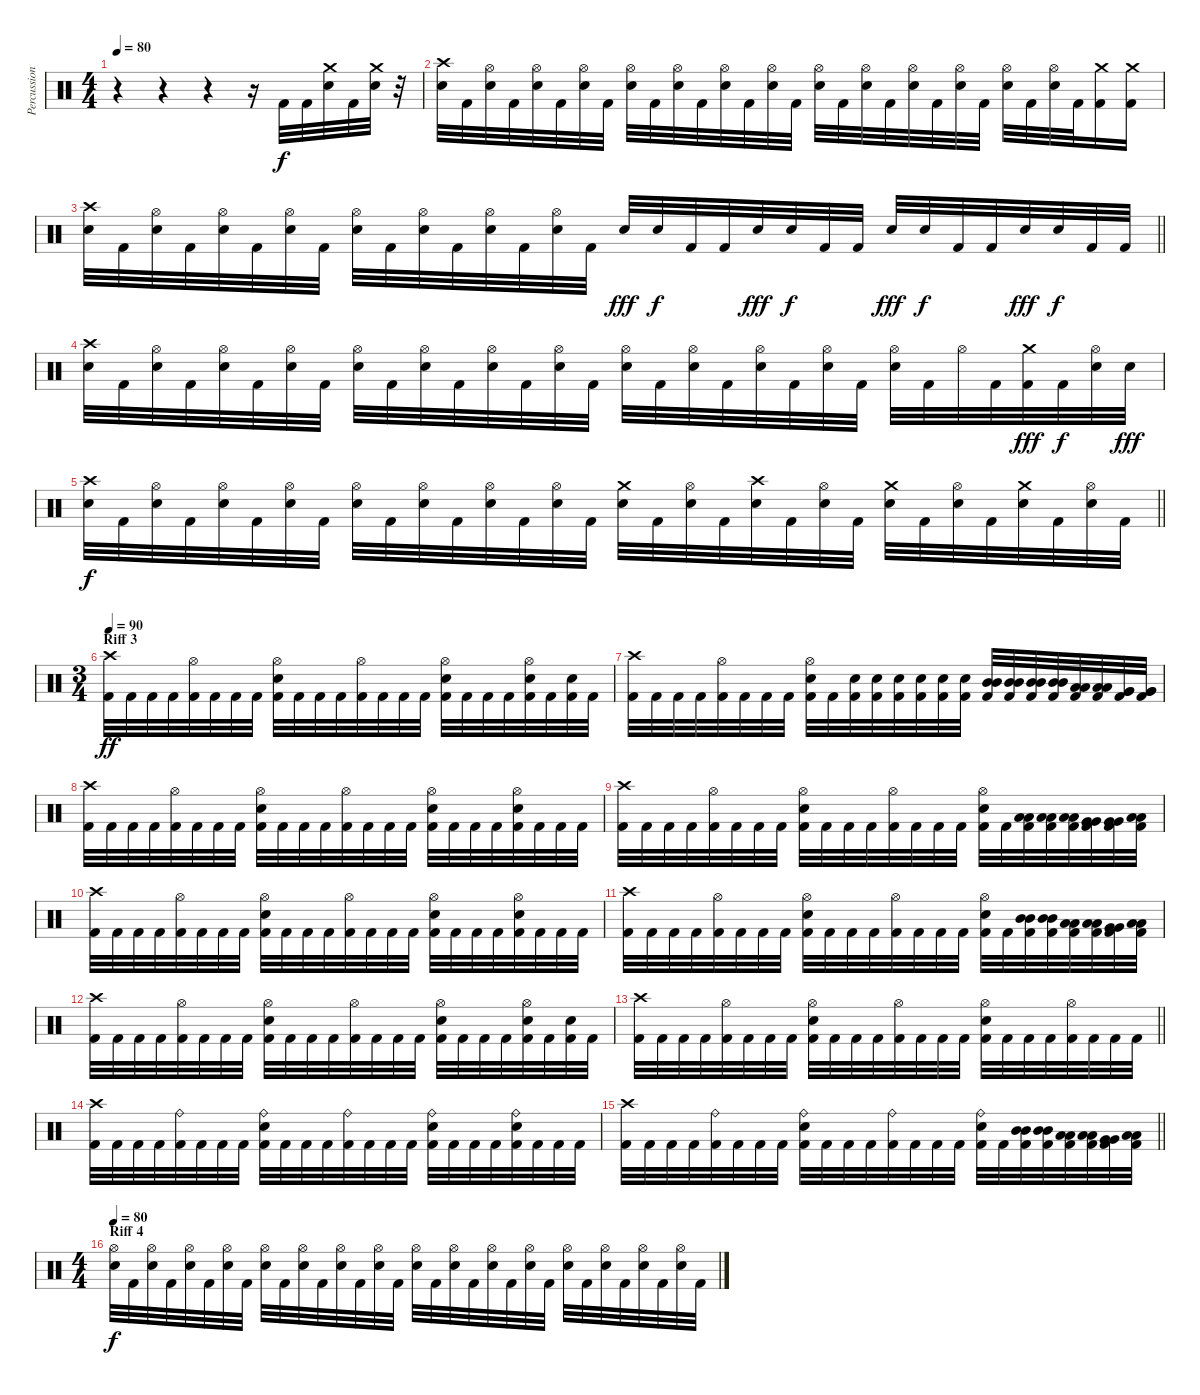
\track ("Percussion" "Percussion") {instrument percussion}
\staff {score}
\articulation defaults
\ts (4 4)
\tempo 80
\clef neutral
\ks c
r.4{dy f} r.4 r.4 r.16 "Kick (hit) 2".32 "Kick (hit) 2".32 ("Crash medium (hit)" "Electric Snare (hit)").32 "Kick (hit) 2".32 ("Crash medium (hit)" "Electric Snare (hit)").32 r.32 |
("Crash high (hit)" "Electric Snare (hit)").32 "Kick (hit) 2".32 ("Hi-Hat (open)" "Electric Snare (hit)").32 "Kick (hit) 2".32 ("Hi-Hat (open)" "Electric Snare (hit)").32 "Kick (hit) 2".32 ("Hi-Hat (open)" "Electric Snare (hit)").32 "Kick (hit) 2".32 ("Hi-Hat (open)" "Electric Snare (hit)").32 "Kick (hit) 2".32 ("Hi-Hat (open)" "Electric Snare (hit)").32 "Kick (hit) 2".32 ("Hi-Hat (open)" "Electric Snare (hit)").32 "Kick (hit) 2".32 ("Hi-Hat (open)" "Electric Snare (hit)").32 "Kick (hit) 2".32 ("Hi-Hat (open)" "Electric Snare (hit)").32 "Kick (hit) 2".32 ("Hi-Hat (open)" "Electric Snare (hit)").32 "Kick (hit) 2".32 ("Hi-Hat (open)" "Electric Snare (hit)").32 "Kick (hit) 2".32 ("Hi-Hat (open)" "Electric Snare (hit)").32 "Kick (hit) 2".32 ("Hi-Hat (open)" "Electric Snare (hit)").32 "Kick (hit) 2".32 ("Hi-Hat (open)" "Electric Snare (hit)").32 "Kick (hit) 2".32 ("Crash medium (hit)" "Kick (hit) 2").16 ("Crash medium (hit)" "Kick (hit) 2").16 |
\barLineRight lightlight
("Crash high (hit)" "Electric Snare (hit)").32 "Kick (hit) 2".32 ("Hi-Hat (open)" "Electric Snare (hit)").32 "Kick (hit) 2".32 ("Hi-Hat (open)" "Electric Snare (hit)").32 "Kick (hit) 2".32 ("Hi-Hat (open)" "Electric Snare (hit)").32 "Kick (hit) 2".32 ("Hi-Hat (open)" "Electric Snare (hit)").32 "Kick (hit) 2".32 ("Hi-Hat (open)" "Electric Snare (hit)").32 "Kick (hit) 2".32 ("Hi-Hat (open)" "Electric Snare (hit)").32 "Kick (hit) 2".32 ("Hi-Hat (open)" "Electric Snare (hit)").32 "Kick (hit) 2".32 "Electric Snare (hit)".32{dy fff} "Electric Snare (hit)".32{dy f} "Kick (hit) 2".32 "Kick (hit) 2".32 "Electric Snare (hit)".32{dy fff} "Electric Snare (hit)".32{dy f} "Kick (hit) 2".32 "Kick (hit) 2".32 "Electric Snare (hit)".32{dy fff} "Electric Snare (hit)".32{dy f} "Kick (hit) 2".32 "Kick (hit) 2".32 "Electric Snare (hit)".32{dy fff} "Electric Snare (hit)".32{dy f} "Kick (hit) 2".32 "Kick (hit) 2".32 |
("Crash high (hit)" "Electric Snare (hit)").32 "Kick (hit) 2".32 ("Hi-Hat (open)" "Electric Snare (hit)").32 "Kick (hit) 2".32 ("Hi-Hat (open)" "Electric Snare (hit)").32 "Kick (hit) 2".32 ("Hi-Hat (open)" "Electric Snare (hit)").32 "Kick (hit) 2".32 ("Hi-Hat (open)" "Electric Snare (hit)").32 "Kick (hit) 2".32 ("Hi-Hat (open)" "Electric Snare (hit)").32 "Kick (hit) 2".32 ("Hi-Hat (open)" "Electric Snare (hit)").32 "Kick (hit) 2".32 ("Hi-Hat (open)" "Electric Snare (hit)").32 "Kick (hit) 2".32 ("Hi-Hat (open)" "Electric Snare (hit)").32 "Kick (hit) 2".32 ("Hi-Hat (open)" "Electric Snare (hit)").32 "Kick (hit) 2".32 ("Hi-Hat (open)" "Electric Snare (hit)").32 "Kick (hit) 2".32 ("Hi-Hat (open)" "Electric Snare (hit)").32 "Kick (hit) 2".32 ("Hi-Hat (open)" "Electric Snare (hit)").32 "Kick (hit) 2".32 "Hi-Hat (open)".32 "Kick (hit) 2".32 ("Crash medium (hit)" "Kick (hit) 2").32{dy fff} "Kick (hit) 2".32{dy f} ("Hi-Hat (open)" "Electric Snare (hit)").32 "Electric Snare (hit)".32{dy fff} |
\barLineRight lightlight
("Crash high (hit)" "Electric Snare (hit)").32{dy f} "Kick (hit) 2".32 ("Hi-Hat (open)" "Electric Snare (hit)").32 "Kick (hit) 2".32 ("Hi-Hat (open)" "Electric Snare (hit)").32 "Kick (hit) 2".32 ("Hi-Hat (open)" "Electric Snare (hit)").32 "Kick (hit) 2".32 ("Hi-Hat (open)" "Electric Snare (hit)").32 "Kick (hit) 2".32 ("Hi-Hat (open)" "Electric Snare (hit)").32 "Kick (hit) 2".32 ("Hi-Hat (open)" "Electric Snare (hit)").32 "Kick (hit) 2".32 ("Hi-Hat (open)" "Electric Snare (hit)").32 "Kick (hit) 2".32 ("Crash medium (hit)" "Electric Snare (hit)").32 "Kick (hit) 2".32 ("Hi-Hat (open)" "Electric Snare (hit)").32 "Kick (hit) 2".32 ("Crash high (hit)" "Electric Snare (hit)").32 "Kick (hit) 2".32 ("Hi-Hat (open)" "Electric Snare (hit)").32 "Kick (hit) 2".32 ("Crash medium (hit)" "Electric Snare (hit)").32 "Kick (hit) 2".32 ("Hi-Hat (open)" "Electric Snare (hit)").32 "Kick (hit) 2".32 ("Crash medium (hit)" "Electric Snare (hit)").32 "Kick (hit) 2".32 ("Hi-Hat (open)" "Electric Snare (hit)").32 "Kick (hit) 2".32 |
\ts (3 4)
\section ("" "Riff 3")
\tempo 90
("Crash high (hit)" "Kick (hit) 2").32{dy ff} "Kick (hit) 2".32 "Kick (hit) 2".32 "Kick (hit) 2".32 ("Hi-Hat (open)" "Kick (hit) 2").32 "Kick (hit) 2".32 "Kick (hit) 2".32 "Kick (hit) 2".32 ("Hi-Hat (open)" "Electric Snare (hit)" "Kick (hit) 2").32 "Kick (hit) 2".32 "Kick (hit) 2".32 "Kick (hit) 2".32 ("Hi-Hat (open)" "Kick (hit) 2").32 "Kick (hit) 2".32 "Kick (hit) 2".32 "Kick (hit) 2".32 ("Hi-Hat (open)" "Electric Snare (hit)" "Kick (hit) 2").32 "Kick (hit) 2".32 "Kick (hit) 2".32 "Kick (hit) 2".32 ("Hi-Hat (open)" "Electric Snare (hit)" "Kick (hit) 2").32 "Kick (hit) 2".32 ("Electric Snare (hit)" "Kick (hit) 2").32 "Kick (hit) 2".32 |
("Crash high (hit)" "Kick (hit) 2").32 "Kick (hit) 2".32 "Kick (hit) 2".32 "Kick (hit) 2".32 ("Hi-Hat (open)" "Kick (hit) 2").32 "Kick (hit) 2".32 "Kick (hit) 2".32 "Kick (hit) 2".32 ("Hi-Hat (open)" "Electric Snare (hit)" "Kick (hit) 2").32 "Kick (hit) 2".32 ("Electric Snare (hit)" "Kick (hit) 2").32 ("Electric Snare (hit)" "Kick (hit) 2").32 ("Electric Snare (hit)" "Kick (hit) 2").32 ("Electric Snare (hit)" "Kick (hit) 2").32 ("Electric Snare (hit)" "Kick (hit) 2").32 ("Electric Snare (hit)" "Kick (hit) 2").32 ("Mid Tom (hit)" "Mid Tom (hit)" "Kick (hit) 2").32 ("Mid Tom (hit)" "Mid Tom (hit)" "Kick (hit) 2").32 ("Mid Tom (hit)" "Mid Tom (hit)" "Kick (hit) 2").32 ("Mid Tom (hit)" "Mid Tom (hit)" "Kick (hit) 2").32 ("Low Tom (hit)" "Low Tom (hit)" "Kick (hit) 2").32 ("Low Tom (hit)" "Low Tom (hit)" "Kick (hit) 2").32 ("Very Low Tom (hit)" "Very Low Tom (hit)" "Kick (hit) 2").32 ("Very Low Tom (hit)" "Very Low Tom (hit)" "Kick (hit) 2").32 |
("Crash high (hit)" "Kick (hit) 2").32 "Kick (hit) 2".32 "Kick (hit) 2".32 "Kick (hit) 2".32 ("Hi-Hat (open)" "Kick (hit) 2").32 "Kick (hit) 2".32 "Kick (hit) 2".32 "Kick (hit) 2".32 ("Hi-Hat (open)" "Electric Snare (hit)" "Kick (hit) 2").32 "Kick (hit) 2".32 "Kick (hit) 2".32 "Kick (hit) 2".32 ("Hi-Hat (open)" "Kick (hit) 2").32 "Kick (hit) 2".32 "Kick (hit) 2".32 "Kick (hit) 2".32 ("Hi-Hat (open)" "Electric Snare (hit)" "Kick (hit) 2").32 "Kick (hit) 2".32 "Kick (hit) 2".32 "Kick (hit) 2".32 ("Hi-Hat (open)" "Electric Snare (hit)" "Kick (hit) 2").32 "Kick (hit) 2".32 "Kick (hit) 2".32 "Kick (hit) 2".32 |
("Crash high (hit)" "Kick (hit) 2").32 "Kick (hit) 2".32 "Kick (hit) 2".32 "Kick (hit) 2".32 ("Hi-Hat (open)" "Kick (hit) 2").32 "Kick (hit) 2".32 "Kick (hit) 2".32 "Kick (hit) 2".32 ("Hi-Hat (open)" "Electric Snare (hit)" "Kick (hit) 2").32 "Kick (hit) 2".32 "Kick (hit) 2".32 "Kick (hit) 2".32 ("Hi-Hat (open)" "Kick (hit) 2").32 "Kick (hit) 2".32 "Kick (hit) 2".32 "Kick (hit) 2".32 ("Hi-Hat (open)" "Electric Snare (hit)" "Kick (hit) 2").32 "Kick (hit) 2".32 ("Low Tom (hit)" "Low Tom (hit)" "Kick (hit) 2").32 ("Low Tom (hit)" "Low Tom (hit)" "Kick (hit) 2").32 ("Low Tom (hit)" "Low Tom (hit)" "Kick (hit) 2").32 ("Very Low Tom (hit)" "Very Low Tom (hit)" "Kick (hit) 2").32 ("Very Low Tom (hit)" "Very Low Tom (hit)" "Kick (hit) 2").32 ("Low Floor Tom (hit)" "Low Floor Tom (hit)" "Kick (hit) 2").32 |
("Crash high (hit)" "Kick (hit) 2").32 "Kick (hit) 2".32 "Kick (hit) 2".32 "Kick (hit) 2".32 ("Hi-Hat (open)" "Kick (hit) 2").32 "Kick (hit) 2".32 "Kick (hit) 2".32 "Kick (hit) 2".32 ("Hi-Hat (open)" "Electric Snare (hit)" "Kick (hit) 2").32 "Kick (hit) 2".32 "Kick (hit) 2".32 "Kick (hit) 2".32 ("Hi-Hat (open)" "Kick (hit) 2").32 "Kick (hit) 2".32 "Kick (hit) 2".32 "Kick (hit) 2".32 ("Hi-Hat (open)" "Electric Snare (hit)" "Kick (hit) 2").32 "Kick (hit) 2".32 "Kick (hit) 2".32 "Kick (hit) 2".32 ("Hi-Hat (open)" "Electric Snare (hit)" "Kick (hit) 2").32 "Kick (hit) 2".32 "Kick (hit) 2".32 "Kick (hit) 2".32 |
("Crash high (hit)" "Kick (hit) 2").32 "Kick (hit) 2".32 "Kick (hit) 2".32 "Kick (hit) 2".32 ("Hi-Hat (open)" "Kick (hit) 2").32 "Kick (hit) 2".32 "Kick (hit) 2".32 "Kick (hit) 2".32 ("Hi-Hat (open)" "Electric Snare (hit)" "Kick (hit) 2").32 "Kick (hit) 2".32 "Kick (hit) 2".32 "Kick (hit) 2".32 ("Hi-Hat (open)" "Kick (hit) 2").32 "Kick (hit) 2".32 "Kick (hit) 2".32 "Kick (hit) 2".32 ("Hi-Hat (open)" "Electric Snare (hit)" "Kick (hit) 2").32 "Kick (hit) 2".32 ("Mid Tom (hit)" "Mid Tom (hit)" "Kick (hit) 2").32 ("Mid Tom (hit)" "Mid Tom (hit)" "Kick (hit) 2").32 ("Low Tom (hit)" "Low Tom (hit)" "Kick (hit) 2").32 ("Low Tom (hit)" "Low Tom (hit)" "Kick (hit) 2").32 ("Very Low Tom (hit)" "Very Low Tom (hit)" "Kick (hit) 2").32 ("Low Floor Tom (hit)" "Low Floor Tom (hit)" "Kick (hit) 2").32 |
("Crash high (hit)" "Kick (hit) 2").32 "Kick (hit) 2".32 "Kick (hit) 2".32 "Kick (hit) 2".32 ("Hi-Hat (open)" "Kick (hit) 2").32 "Kick (hit) 2".32 "Kick (hit) 2".32 "Kick (hit) 2".32 ("Hi-Hat (open)" "Electric Snare (hit)" "Kick (hit) 2").32 "Kick (hit) 2".32 "Kick (hit) 2".32 "Kick (hit) 2".32 ("Hi-Hat (open)" "Kick (hit) 2").32 "Kick (hit) 2".32 "Kick (hit) 2".32 "Kick (hit) 2".32 ("Hi-Hat (open)" "Electric Snare (hit)" "Kick (hit) 2").32 "Kick (hit) 2".32 "Kick (hit) 2".32 "Kick (hit) 2".32 ("Hi-Hat (open)" "Electric Snare (hit)" "Kick (hit) 2").32 "Kick (hit) 2".32 ("Electric Snare (hit)" "Kick (hit) 2").32 "Kick (hit) 2".32 |
\barLineRight lightlight
("Crash high (hit)" "Kick (hit) 2").32 "Kick (hit) 2".32 "Kick (hit) 2".32 "Kick (hit) 2".32 ("Hi-Hat (open)" "Kick (hit) 2").32 "Kick (hit) 2".32 "Kick (hit) 2".32 "Kick (hit) 2".32 ("Hi-Hat (open)" "Electric Snare (hit)" "Kick (hit) 2").32 "Kick (hit) 2".32 "Kick (hit) 2".32 "Kick (hit) 2".32 ("Hi-Hat (open)" "Kick (hit) 2").32 "Kick (hit) 2".32 "Kick (hit) 2".32 "Kick (hit) 2".32 ("Hi-Hat (open)" "Electric Snare (hit)" "Kick (hit) 2").32 "Kick (hit) 2".32 "Kick (hit) 2".32 "Kick (hit) 2".32 ("Hi-Hat (open)" "Kick (hit) 2").32 "Kick (hit) 2".32 "Kick (hit) 2".32 "Kick (hit) 2".32 |
("Crash high (hit)" "Kick (hit) 2").32 "Kick (hit) 2".32 "Kick (hit) 2".32 "Kick (hit) 2".32 ("Ride (bell)" "Kick (hit) 2").32 "Kick (hit) 2".32 "Kick (hit) 2".32 "Kick (hit) 2".32 ("Ride (bell)" "Electric Snare (hit)" "Kick (hit) 2").32 "Kick (hit) 2".32 "Kick (hit) 2".32 "Kick (hit) 2".32 ("Ride (bell)" "Kick (hit) 2").32 "Kick (hit) 2".32 "Kick (hit) 2".32 "Kick (hit) 2".32 ("Ride (bell)" "Electric Snare (hit)" "Kick (hit) 2").32 "Kick (hit) 2".32 "Kick (hit) 2".32 "Kick (hit) 2".32 ("Ride (bell)" "Electric Snare (hit)" "Kick (hit) 2").32 "Kick (hit) 2".32 "Kick (hit) 2".32 "Kick (hit) 2".32 |
\barLineRight lightlight
("Crash high (hit)" "Kick (hit) 2").32 "Kick (hit) 2".32 "Kick (hit) 2".32 "Kick (hit) 2".32 ("Ride (bell)" "Kick (hit) 2").32 "Kick (hit) 2".32 "Kick (hit) 2".32 "Kick (hit) 2".32 ("Ride (bell)" "Electric Snare (hit)" "Kick (hit) 2").32 "Kick (hit) 2".32 "Kick (hit) 2".32 "Kick (hit) 2".32 ("Ride (bell)" "Kick (hit) 2").32 "Kick (hit) 2".32 "Kick (hit) 2".32 "Kick (hit) 2".32 ("Ride (bell)" "Electric Snare (hit)" "Kick (hit) 2").32 "Kick (hit) 2".32 ("Mid Tom (hit)" "Mid Tom (hit)" "Kick (hit) 2").32 ("Mid Tom (hit)" "Mid Tom (hit)" "Kick (hit) 2").32 ("Low Tom (hit)" "Low Tom (hit)" "Kick (hit) 2").32 ("Low Tom (hit)" "Low Tom (hit)" "Kick (hit) 2").32 ("Very Low Tom (hit)" "Very Low Tom (hit)" "Kick (hit) 2").32 ("Low Floor Tom (hit)" "Low Floor Tom (hit)" "Kick (hit) 2").32 |
\ts (4 4)
\section ("" "Riff 4 ")
\tempo 80
("Hi-Hat (open)" "Electric Snare (hit)").32{dy f} "Kick (hit) 2".32 ("Hi-Hat (open)" "Electric Snare (hit)").32 "Kick (hit) 2".32 ("Hi-Hat (open)" "Electric Snare (hit)").32 "Kick (hit) 2".32 ("Hi-Hat (open)" "Electric Snare (hit)").32 "Kick (hit) 2".32 ("Hi-Hat (open)" "Electric Snare (hit)").32 "Kick (hit) 2".32 ("Hi-Hat (open)" "Electric Snare (hit)").32 "Kick (hit) 2".32 ("Hi-Hat (open)" "Electric Snare (hit)").32 "Kick (hit) 2".32 ("Hi-Hat (open)" "Electric Snare (hit)").32 "Kick (hit) 2".32 ("Hi-Hat (open)" "Electric Snare (hit)").32 "Kick (hit) 2".32 ("Hi-Hat (open)" "Electric Snare (hit)").32 "Kick (hit) 2".32 ("Hi-Hat (open)" "Electric Snare (hit)").32 "Kick (hit) 2".32 ("Hi-Hat (open)" "Electric Snare (hit)").32 "Kick (hit) 2".32 ("Hi-Hat (open)" "Electric Snare (hit)").32 "Kick (hit) 2".32 ("Hi-Hat (open)" "Electric Snare (hit)").32 "Kick (hit) 2".32 ("Hi-Hat (open)" "Electric Snare (hit)").32 "Kick (hit) 2".32 ("Hi-Hat (open)" "Electric Snare (hit)").32 "Kick (hit) 2".32
